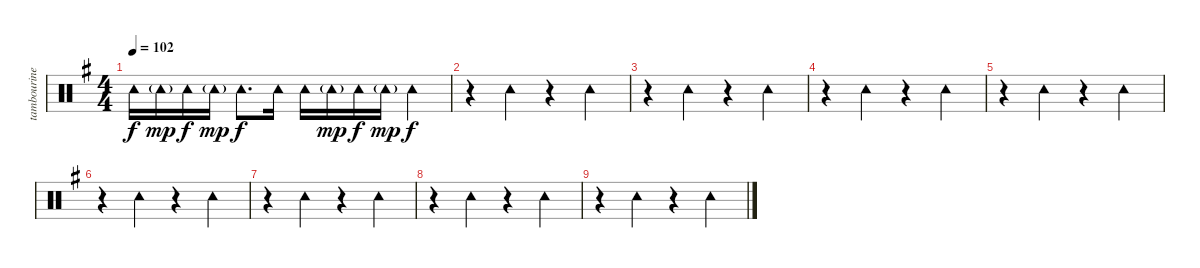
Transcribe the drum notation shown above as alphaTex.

\track ("tambourine" "tambourine") {instrument percussion}
\staff {score}
\articulation defaults
\ts (4 4)
\tempo 102
\clef neutral
\ks eminor "Tambourine (hit)".16{dy f} "Tambourine (hit)"{g}.16{dy mp} "Tambourine (hit)".16{dy f} "Tambourine (hit)"{g}.16{dy mp} "Tambourine (hit)".8{d dy f} "Tambourine (hit)".16 "Tambourine (hit)".16 "Tambourine (hit)"{g}.16{dy mp} "Tambourine (hit)".16{dy f} "Tambourine (hit)"{g}.16{dy mp} "Tambourine (hit)".4{dy f}
|
r.4 "Tambourine (hit)".4 r.4 "Tambourine (hit)".4 |
r.4 "Tambourine (hit)".4 r.4 "Tambourine (hit)".4 |
r.4 "Tambourine (hit)".4 r.4 "Tambourine (hit)".4 |
r.4 "Tambourine (hit)".4 r.4 "Tambourine (hit)".4 |
r.4 "Tambourine (hit)".4 r.4 "Tambourine (hit)".4 |
r.4 "Tambourine (hit)".4 r.4 "Tambourine (hit)".4 |
r.4 "Tambourine (hit)".4 r.4 "Tambourine (hit)".4 |
r.4 "Tambourine (hit)".4 r.4 "Tambourine (hit)".4
